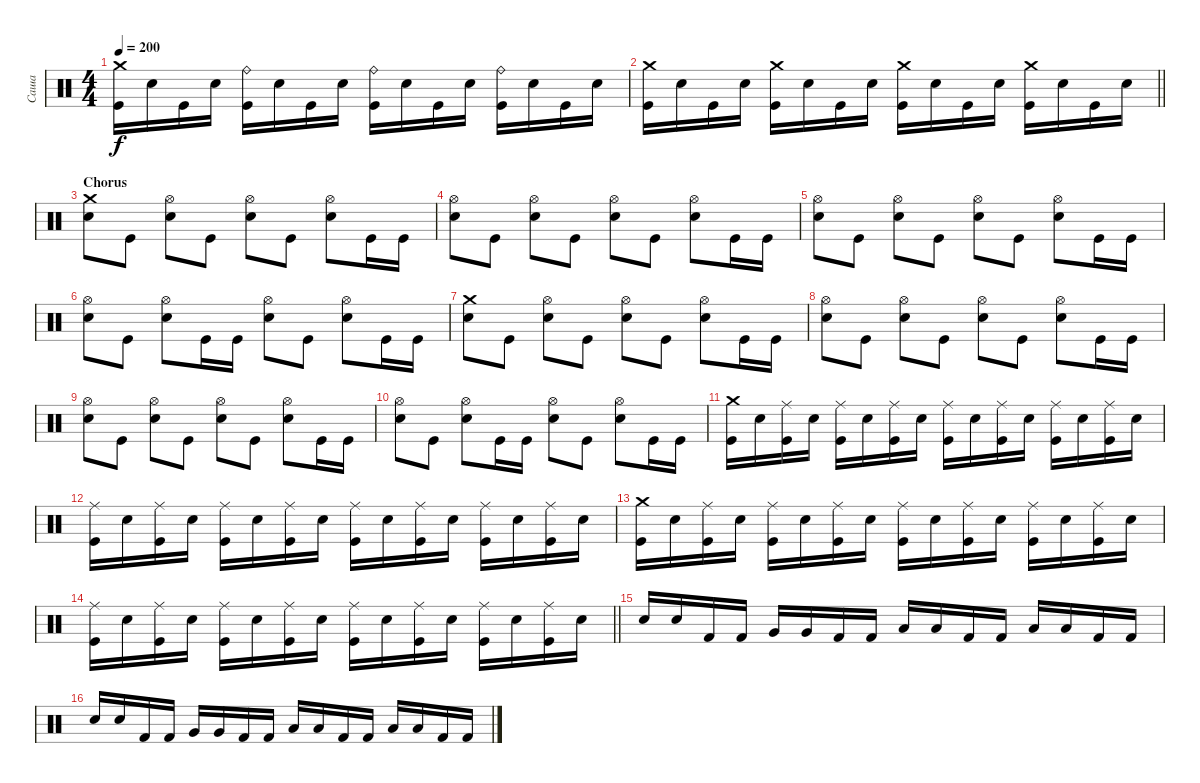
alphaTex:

\track ("Саша" "Саша") {instrument percussion}
\staff {score}
\articulation defaults
\ts (4 4)
\tempo 200
\clef neutral
\ks c
("Crash medium (hit)" "Kick (hit)").16{dy f} "Electric Snare (hit)".16 "Kick (hit)".16 "Electric Snare (hit)".16 ("Ride (bell)" "Kick (hit)").16 "Electric Snare (hit)".16 "Kick (hit)".16 "Electric Snare (hit)".16 ("Ride (bell)" "Kick (hit)").16 "Electric Snare (hit)".16 "Kick (hit)".16 "Electric Snare (hit)".16 ("Ride (bell)" "Kick (hit)").16 "Electric Snare (hit)".16 "Kick (hit)".16 "Electric Snare (hit)".16 |
\barLineRight lightlight
("Crash medium (hit)" "Kick (hit)").16 "Electric Snare (hit)".16 "Kick (hit)".16 "Electric Snare (hit)".16 ("Crash medium (hit)" "Kick (hit)").16 "Electric Snare (hit)".16 "Kick (hit)".16 "Electric Snare (hit)".16 ("Crash medium (hit)" "Kick (hit)").16 "Electric Snare (hit)".16 "Kick (hit)".16 "Electric Snare (hit)".16 ("Crash medium (hit)" "Kick (hit)").16 "Electric Snare (hit)".16 "Kick (hit)".16 "Electric Snare (hit)".16 |
\section ("" "Chorus")
("Crash medium (hit)" "Electric Snare (hit)").8 "Kick (hit)".8 ("Hi-Hat (open)" "Electric Snare (hit)").8 "Kick (hit)".8 ("Hi-Hat (open)" "Electric Snare (hit)").8 "Kick (hit)".8 ("Hi-Hat (open)" "Electric Snare (hit)").8 "Kick (hit)".16 "Kick (hit)".16 |
("Hi-Hat (open)" "Electric Snare (hit)").8 "Kick (hit)".8 ("Hi-Hat (open)" "Electric Snare (hit)").8 "Kick (hit)".8 ("Hi-Hat (open)" "Electric Snare (hit)").8 "Kick (hit)".8 ("Hi-Hat (open)" "Electric Snare (hit)").8 "Kick (hit)".16 "Kick (hit)".16 |
("Hi-Hat (open)" "Electric Snare (hit)").8 "Kick (hit)".8 ("Hi-Hat (open)" "Electric Snare (hit)").8 "Kick (hit)".8 ("Hi-Hat (open)" "Electric Snare (hit)").8 "Kick (hit)".8 ("Hi-Hat (open)" "Electric Snare (hit)").8 "Kick (hit)".16 "Kick (hit)".16 |
("Hi-Hat (open)" "Electric Snare (hit)").8 "Kick (hit)".8 ("Hi-Hat (open)" "Electric Snare (hit)").8 "Kick (hit)".16 "Kick (hit)".16 ("Hi-Hat (open)" "Electric Snare (hit)").8 "Kick (hit)".8 ("Hi-Hat (open)" "Electric Snare (hit)").8 "Kick (hit)".16 "Kick (hit)".16 |
("Crash medium (hit)" "Electric Snare (hit)").8 "Kick (hit)".8 ("Hi-Hat (open)" "Electric Snare (hit)").8 "Kick (hit)".8 ("Hi-Hat (open)" "Electric Snare (hit)").8 "Kick (hit)".8 ("Hi-Hat (open)" "Electric Snare (hit)").8 "Kick (hit)".16 "Kick (hit)".16 |
("Hi-Hat (open)" "Electric Snare (hit)").8 "Kick (hit)".8 ("Hi-Hat (open)" "Electric Snare (hit)").8 "Kick (hit)".8 ("Hi-Hat (open)" "Electric Snare (hit)").8 "Kick (hit)".8 ("Hi-Hat (open)" "Electric Snare (hit)").8 "Kick (hit)".16 "Kick (hit)".16 |
("Hi-Hat (open)" "Electric Snare (hit)").8 "Kick (hit)".8 ("Hi-Hat (open)" "Electric Snare (hit)").8 "Kick (hit)".8 ("Hi-Hat (open)" "Electric Snare (hit)").8 "Kick (hit)".8 ("Hi-Hat (open)" "Electric Snare (hit)").8 "Kick (hit)".16 "Kick (hit)".16 |
("Hi-Hat (open)" "Electric Snare (hit)").8 "Kick (hit)".8 ("Hi-Hat (open)" "Electric Snare (hit)").8 "Kick (hit)".16 "Kick (hit)".16 ("Hi-Hat (open)" "Electric Snare (hit)").8 "Kick (hit)".8 ("Hi-Hat (open)" "Electric Snare (hit)").8 "Kick (hit)".16 "Kick (hit)".16 |
("Crash medium (hit)" "Kick (hit)").16 "Electric Snare (hit)".16 ("Ride (middle)" "Kick (hit)").16 "Electric Snare (hit)".16 ("Ride (middle)" "Kick (hit)").16 "Electric Snare (hit)".16 ("Ride (middle)" "Kick (hit)").16 "Electric Snare (hit)".16 ("Ride (middle)" "Kick (hit)").16 "Electric Snare (hit)".16 ("Ride (middle)" "Kick (hit)").16 "Electric Snare (hit)".16 ("Ride (middle)" "Kick (hit)").16 "Electric Snare (hit)".16 ("Ride (middle)" "Kick (hit)").16 "Electric Snare (hit)".16 |
("Ride (middle)" "Kick (hit)").16 "Electric Snare (hit)".16 ("Ride (middle)" "Kick (hit)").16 "Electric Snare (hit)".16 ("Ride (middle)" "Kick (hit)").16 "Electric Snare (hit)".16 ("Ride (middle)" "Kick (hit)").16 "Electric Snare (hit)".16 ("Ride (middle)" "Kick (hit)").16 "Electric Snare (hit)".16 ("Ride (middle)" "Kick (hit)").16 "Electric Snare (hit)".16 ("Ride (middle)" "Kick (hit)").16 "Electric Snare (hit)".16 ("Ride (middle)" "Kick (hit)").16 "Electric Snare (hit)".16 |
("Crash medium (hit)" "Kick (hit)").16 "Electric Snare (hit)".16 ("Ride (middle)" "Kick (hit)").16 "Electric Snare (hit)".16 ("Ride (middle)" "Kick (hit)").16 "Electric Snare (hit)".16 ("Ride (middle)" "Kick (hit)").16 "Electric Snare (hit)".16 ("Ride (middle)" "Kick (hit)").16 "Electric Snare (hit)".16 ("Ride (middle)" "Kick (hit)").16 "Electric Snare (hit)".16 ("Ride (middle)" "Kick (hit)").16 "Electric Snare (hit)".16 ("Ride (middle)" "Kick (hit)").16 "Electric Snare (hit)".16 |
\barLineRight lightlight
("Ride (middle)" "Kick (hit)").16 "Electric Snare (hit)".16 ("Ride (middle)" "Kick (hit)").16 "Electric Snare (hit)".16 ("Ride (middle)" "Kick (hit)").16 "Electric Snare (hit)".16 ("Ride (middle)" "Kick (hit)").16 "Electric Snare (hit)".16 ("Ride (middle)" "Kick (hit)").16 "Electric Snare (hit)".16 ("Ride (middle)" "Kick (hit)").16 "Electric Snare (hit)".16 ("Ride (middle)" "Kick (hit)").16 "Electric Snare (hit)".16 ("Ride (middle)" "Kick (hit)").16 "Electric Snare (hit)".16 |
"Electric Snare (hit)".16 "Electric Snare (hit)".16 "Kick (hit) 2".16 "Kick (hit) 2".16 "Very Low Tom (hit)".16 "Very Low Tom (hit)".16 "Kick (hit) 2".16 "Kick (hit) 2".16 "Low Tom (hit)".16 "Low Tom (hit)".16 "Kick (hit) 2".16 "Kick (hit) 2".16 "Low Floor Tom (hit)".16 "Low Floor Tom (hit)".16 "Kick (hit) 2".16 "Kick (hit) 2".16 |
"Electric Snare (hit)".16 "Electric Snare (hit)".16 "Kick (hit) 2".16 "Kick (hit) 2".16 "Very Low Tom (hit)".16 "Very Low Tom (hit)".16 "Kick (hit) 2".16 "Kick (hit) 2".16 "Low Tom (hit)".16 "Low Tom (hit)".16 "Kick (hit) 2".16 "Kick (hit) 2".16 "Low Floor Tom (hit)".16 "Low Floor Tom (hit)".16 "Kick (hit) 2".16 "Kick (hit) 2".16
